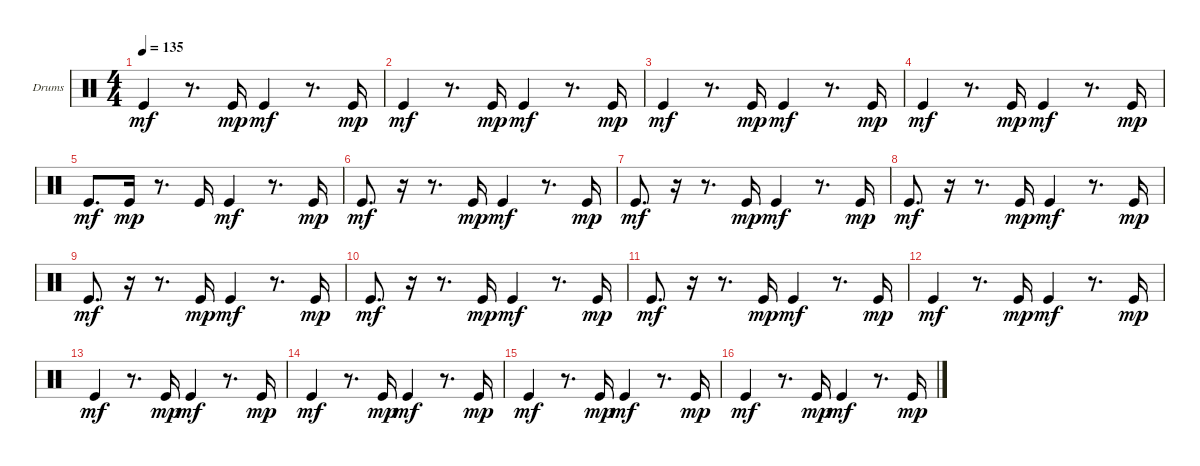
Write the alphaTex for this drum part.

\bracketExtendMode groupsimilarinstruments
\firstSystemTrackNameOrientation horizontal
\otherSystemsTrackNameOrientation horizontal
\track ("Kick" "Drums") {instrument percussion}
\staff {score}
\articulation defaults
\ts (4 4)
\tempo 135
\clef neutral
\ks c "Kick (hit)".4{dy mf}
r.8{d} "Kick (hit)".16{dy mp} "Kick (hit)".4{dy mf} r.8{d} "Kick (hit)".16{dy mp} |
"Kick (hit)".4{dy mf} r.8{d} "Kick (hit)".16{dy mp} "Kick (hit)".4{dy mf} r.8{d} "Kick (hit)".16{dy mp} |
"Kick (hit)".4{dy mf} r.8{d} "Kick (hit)".16{dy mp} "Kick (hit)".4{dy mf} r.8{d} "Kick (hit)".16{dy mp} |
"Kick (hit)".4{dy mf} r.8{d} "Kick (hit)".16{dy mp} "Kick (hit)".4{dy mf} r.8{d} "Kick (hit)".16{dy mp} |
"Kick (hit)".8{d dy mf} "Kick (hit)".16{dy mp} r.8{d} "Kick (hit)".16 "Kick (hit)".4{dy mf} r.8{d} "Kick (hit)".16{dy mp} |
"Kick (hit)".8{d dy mf} r.16 r.8{d} "Kick (hit)".16{dy mp} "Kick (hit)".4{dy mf} r.8{d} "Kick (hit)".16{dy mp} |
"Kick (hit)".8{d dy mf} r.16 r.8{d} "Kick (hit)".16{dy mp} "Kick (hit)".4{dy mf} r.8{d} "Kick (hit)".16{dy mp} |
"Kick (hit)".8{d dy mf} r.16 r.8{d} "Kick (hit)".16{dy mp} "Kick (hit)".4{dy mf} r.8{d} "Kick (hit)".16{dy mp} |
"Kick (hit)".8{d dy mf} r.16 r.8{d} "Kick (hit)".16{dy mp} "Kick (hit)".4{dy mf} r.8{d} "Kick (hit)".16{dy mp} |
"Kick (hit)".8{d dy mf} r.16 r.8{d} "Kick (hit)".16{dy mp} "Kick (hit)".4{dy mf} r.8{d} "Kick (hit)".16{dy mp} |
"Kick (hit)".8{d dy mf} r.16 r.8{d} "Kick (hit)".16{dy mp} "Kick (hit)".4{dy mf} r.8{d} "Kick (hit)".16{dy mp} |
"Kick (hit)".4{dy mf} r.8{d} "Kick (hit)".16{dy mp} "Kick (hit)".4{dy mf} r.8{d} "Kick (hit)".16{dy mp} |
"Kick (hit)".4{dy mf} r.8{d} "Kick (hit)".16{dy mp} "Kick (hit)".4{dy mf} r.8{d} "Kick (hit)".16{dy mp} |
"Kick (hit)".4{dy mf} r.8{d} "Kick (hit)".16{dy mp} "Kick (hit)".4{dy mf} r.8{d} "Kick (hit)".16{dy mp} |
"Kick (hit)".4{dy mf} r.8{d} "Kick (hit)".16{dy mp} "Kick (hit)".4{dy mf} r.8{d} "Kick (hit)".16{dy mp} |
"Kick (hit)".4{dy mf} r.8{d} "Kick (hit)".16{dy mp} "Kick (hit)".4{dy mf} r.8{d} "Kick (hit)".16{dy mp}
